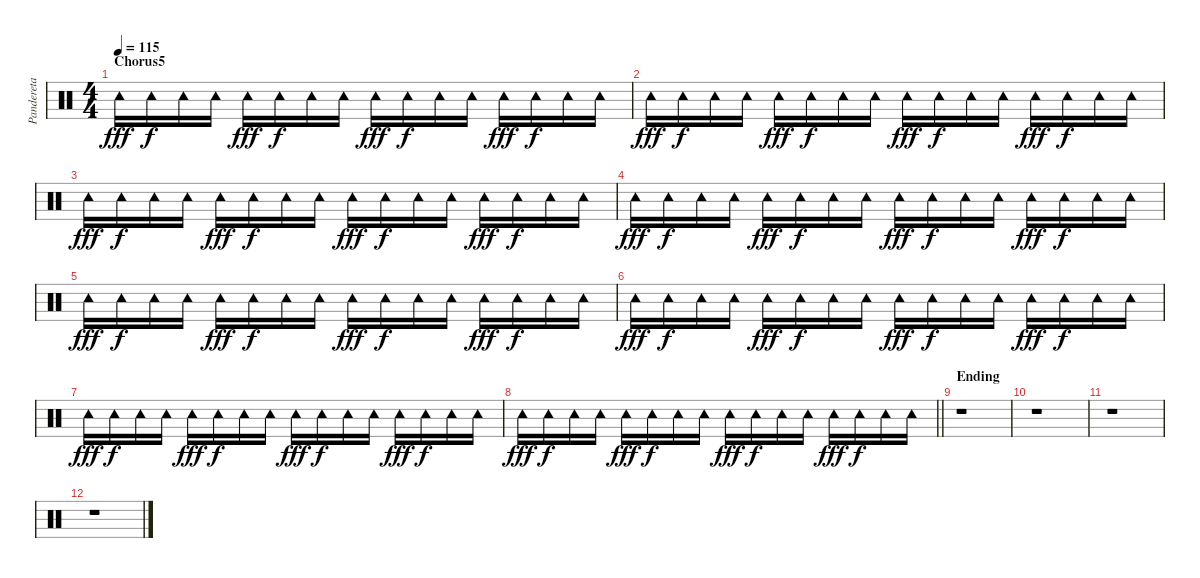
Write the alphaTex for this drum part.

\track ("Pandereta" "Pandereta") {instrument percussion}
\staff {score}
\articulation defaults
\ts (4 4)
\section ("" "Chorus5")
\tempo 115
\clef neutral
\ks c "Tambourine (hit)".16{dy fff} "Tambourine (hit)".16{dy f} "Tambourine (hit)".16 "Tambourine (hit)".16 "Tambourine (hit)".16{dy fff} "Tambourine (hit)".16{dy f} "Tambourine (hit)".16 "Tambourine (hit)".16 "Tambourine (hit)".16{dy fff} "Tambourine (hit)".16{dy f} "Tambourine (hit)".16 "Tambourine (hit)".16 "Tambourine (hit)".16{dy fff} "Tambourine (hit)".16{dy f} "Tambourine (hit)".16 "Tambourine (hit)".16
|
"Tambourine (hit)".16{dy fff} "Tambourine (hit)".16{dy f} "Tambourine (hit)".16 "Tambourine (hit)".16 "Tambourine (hit)".16{dy fff} "Tambourine (hit)".16{dy f} "Tambourine (hit)".16 "Tambourine (hit)".16 "Tambourine (hit)".16{dy fff} "Tambourine (hit)".16{dy f} "Tambourine (hit)".16 "Tambourine (hit)".16 "Tambourine (hit)".16{dy fff} "Tambourine (hit)".16{dy f} "Tambourine (hit)".16 "Tambourine (hit)".16 |
"Tambourine (hit)".16{dy fff} "Tambourine (hit)".16{dy f} "Tambourine (hit)".16 "Tambourine (hit)".16 "Tambourine (hit)".16{dy fff} "Tambourine (hit)".16{dy f} "Tambourine (hit)".16 "Tambourine (hit)".16 "Tambourine (hit)".16{dy fff} "Tambourine (hit)".16{dy f} "Tambourine (hit)".16 "Tambourine (hit)".16 "Tambourine (hit)".16{dy fff} "Tambourine (hit)".16{dy f} "Tambourine (hit)".16 "Tambourine (hit)".16 |
"Tambourine (hit)".16{dy fff} "Tambourine (hit)".16{dy f} "Tambourine (hit)".16 "Tambourine (hit)".16 "Tambourine (hit)".16{dy fff} "Tambourine (hit)".16{dy f} "Tambourine (hit)".16 "Tambourine (hit)".16 "Tambourine (hit)".16{dy fff} "Tambourine (hit)".16{dy f} "Tambourine (hit)".16 "Tambourine (hit)".16 "Tambourine (hit)".16{dy fff} "Tambourine (hit)".16{dy f} "Tambourine (hit)".16 "Tambourine (hit)".16 |
"Tambourine (hit)".16{dy fff} "Tambourine (hit)".16{dy f} "Tambourine (hit)".16 "Tambourine (hit)".16 "Tambourine (hit)".16{dy fff} "Tambourine (hit)".16{dy f} "Tambourine (hit)".16 "Tambourine (hit)".16 "Tambourine (hit)".16{dy fff} "Tambourine (hit)".16{dy f} "Tambourine (hit)".16 "Tambourine (hit)".16 "Tambourine (hit)".16{dy fff} "Tambourine (hit)".16{dy f} "Tambourine (hit)".16 "Tambourine (hit)".16 |
"Tambourine (hit)".16{dy fff} "Tambourine (hit)".16{dy f} "Tambourine (hit)".16 "Tambourine (hit)".16 "Tambourine (hit)".16{dy fff} "Tambourine (hit)".16{dy f} "Tambourine (hit)".16 "Tambourine (hit)".16 "Tambourine (hit)".16{dy fff} "Tambourine (hit)".16{dy f} "Tambourine (hit)".16 "Tambourine (hit)".16 "Tambourine (hit)".16{dy fff} "Tambourine (hit)".16{dy f} "Tambourine (hit)".16 "Tambourine (hit)".16 |
"Tambourine (hit)".16{dy fff} "Tambourine (hit)".16{dy f} "Tambourine (hit)".16 "Tambourine (hit)".16 "Tambourine (hit)".16{dy fff} "Tambourine (hit)".16{dy f} "Tambourine (hit)".16 "Tambourine (hit)".16 "Tambourine (hit)".16{dy fff} "Tambourine (hit)".16{dy f} "Tambourine (hit)".16 "Tambourine (hit)".16 "Tambourine (hit)".16{dy fff} "Tambourine (hit)".16{dy f} "Tambourine (hit)".16 "Tambourine (hit)".16 |
\barLineRight lightlight "Tambourine (hit)".16{dy fff} "Tambourine (hit)".16{dy f} "Tambourine (hit)".16 "Tambourine (hit)".16 "Tambourine (hit)".16{dy fff} "Tambourine (hit)".16{dy f} "Tambourine (hit)".16 "Tambourine (hit)".16 "Tambourine (hit)".16{dy fff} "Tambourine (hit)".16{dy f} "Tambourine (hit)".16 "Tambourine (hit)".16 "Tambourine (hit)".16{dy fff} "Tambourine (hit)".16{dy f} "Tambourine (hit)".16 "Tambourine (hit)".16
|
\section ("" "Ending")
r.1 |
r.1 |
r.1 |
r.1
